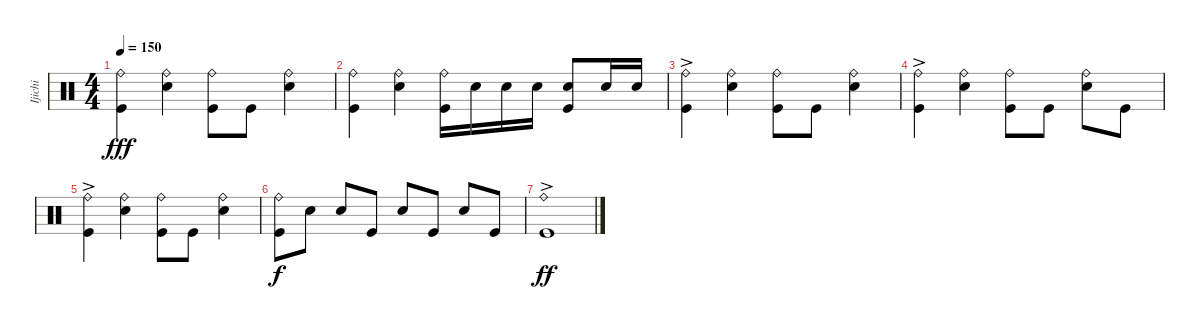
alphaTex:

\track ("Ijichi" "Ijichi") {instrument percussion}
\staff {score}
\articulation defaults
\ts (4 4)
\tempo 150
\clef neutral
\ks c
("Ride (bell)" "Kick (hit)").4{dy fff} ("Ride (bell)" "Snare (hit) 2").4 ("Ride (bell)" "Kick (hit)").8 "Kick (hit)".8 ("Ride (bell)" "Snare (hit) 2").4 |
("Ride (bell)" "Kick (hit)").4 ("Ride (bell)" "Snare (hit) 2").4 ("Ride (bell)" "Kick (hit)").16 "Snare (hit) 2".16 "Snare (hit) 2".16 "Snare (hit) 2".16 ("Snare (hit) 2" "Kick (hit)").8 "Snare (hit) 2".16 "Snare (hit) 2".16 |
("Ride (bell)"{ac} "Kick (hit)").4 ("Ride (bell)" "Snare (hit) 2").4 ("Ride (bell)" "Kick (hit)").8 "Kick (hit)".8 ("Ride (bell)" "Snare (hit) 2").4 |
("Ride (bell)"{ac} "Kick (hit)").4 ("Ride (bell)" "Snare (hit) 2").4 ("Ride (bell)" "Kick (hit)").8 "Kick (hit)".8 ("Ride (bell)" "Snare (hit) 2").8 "Kick (hit)".8 |
("Ride (bell)"{ac} "Kick (hit)").4 ("Ride (bell)" "Snare (hit) 2").4 ("Ride (bell)" "Kick (hit)").8 "Kick (hit)".8 ("Ride (bell)" "Snare (hit) 2").4 |
("Ride (bell)" "Kick (hit)").8{dy f} "Snare (hit) 2".8 "Snare (hit) 2".8 "Kick (hit)".8 "Snare (hit) 2".8 "Kick (hit)".8 "Snare (hit) 2".8 "Kick (hit)".8 |
("Ride (bell)"{ac} "Kick (hit)").1{dy ff}
